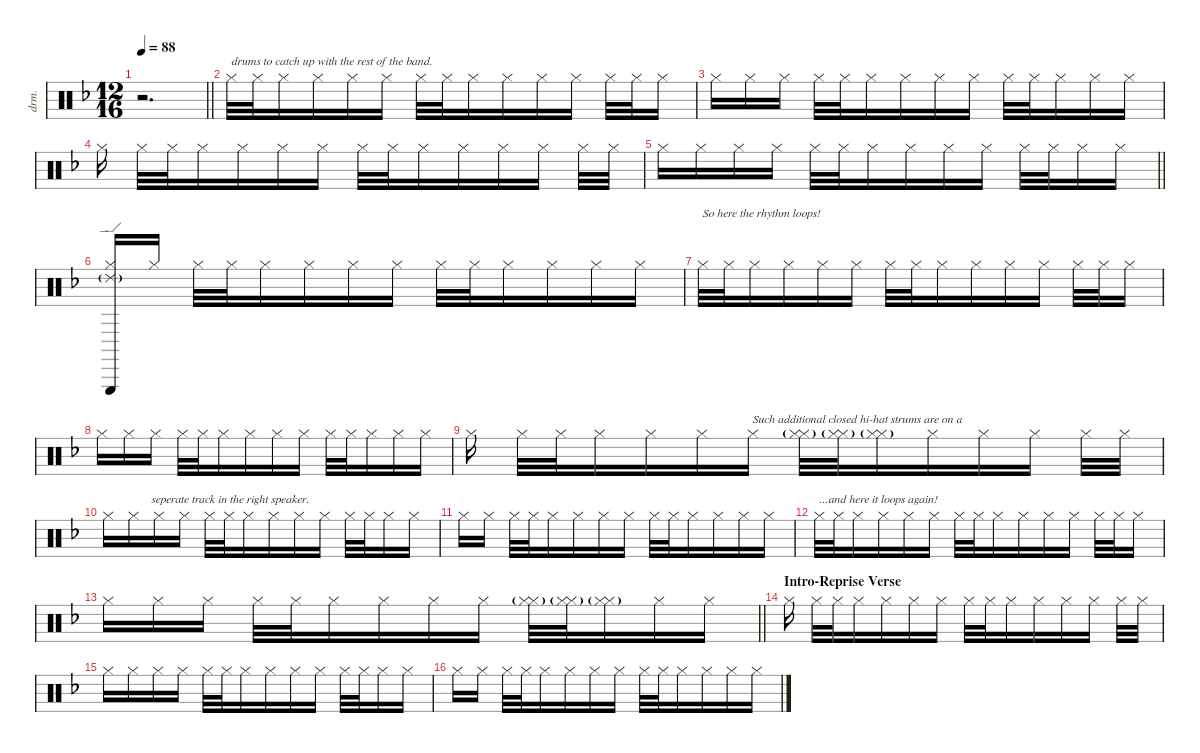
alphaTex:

\defaultSystemsLayout 4
\hideDynamics
\bracketExtendMode nobrackets
\otherSystemsTrackNameOrientation horizontal
\track ("Drums" "drm.") {instrument percussion}
\staff {score}
\articulation defaults
\ts (12 16)
\tempo 88
\clef neutral
\barLineRight lightlight
\ks dminor
r.2{d dy f beam Down} |
"Hi-Hat (closed)"{acc forcenatural}.32{txt "drums to catch up with the rest of the band." dy mf beam Down} "Hi-Hat (closed)"{acc forcenatural}.32{beam Down} "Hi-Hat (closed)"{acc forcenatural}.16{beam Down} "Hi-Hat (closed)"{acc forcenatural}.16{beam Down beam merge} "Hi-Hat (closed)"{acc forcenatural}.16{beam Down} "Hi-Hat (closed)"{acc forcenatural}.16{beam Down beam split} "Hi-Hat (closed)"{acc forcenatural}.32{beam Down} "Hi-Hat (closed)"{acc forcenatural}.32{beam Down beam merge} "Hi-Hat (closed)"{acc forcenatural}.16{beam Down} "Hi-Hat (closed)"{acc forcenatural}.16{beam Down} "Hi-Hat (closed)"{acc forcenatural}.16{beam Down beam merge} "Hi-Hat (closed)"{acc forcenatural}.16{beam Down beam split} "Hi-Hat (closed)"{acc forcenatural}.32{beam Down} "Hi-Hat (closed)"{acc forcenatural}.32{beam Down} "Hi-Hat (closed)"{acc forcenatural}.16{beam Down} |
"Hi-Hat (closed)"{acc forcenatural}.16{beam Down} "Hi-Hat (closed)"{acc forcenatural}.16{beam Down} "Hi-Hat (closed)"{acc forcenatural}.16{beam Down beam split} "Hi-Hat (closed)"{acc forcenatural}.32{beam Down} "Hi-Hat (closed)"{acc forcenatural}.32{beam Down beam merge} "Hi-Hat (closed)"{acc forcenatural}.16{beam Down} "Hi-Hat (closed)"{acc forcenatural}.16{beam Down beam merge} "Hi-Hat (closed)"{acc forcenatural}.16{beam Down beam merge} "Hi-Hat (closed)"{acc forcenatural}.16{beam Down beam split} "Hi-Hat (closed)"{acc forcenatural}.32{beam Down} "Hi-Hat (closed)"{acc forcenatural}.32{beam Down beam merge} "Hi-Hat (closed)"{acc forcenatural}.16{beam Down} "Hi-Hat (closed)"{acc forcenatural}.16{beam Down} "Hi-Hat (closed)"{acc forcenatural}.16{beam Down} |
"Hi-Hat (closed)"{acc forcenatural}.16{beam Down beam split} "Hi-Hat (closed)"{acc forcenatural}.32{beam Down} "Hi-Hat (closed)"{acc forcenatural}.32{beam Down beam merge} "Hi-Hat (closed)"{acc forcenatural}.16{beam Down beam merge} "Hi-Hat (closed)"{acc forcenatural}.16{beam Down} "Hi-Hat (closed)"{acc forcenatural}.16{beam Down beam merge} "Hi-Hat (closed)"{acc forcenatural}.16{beam Down beam split} "Hi-Hat (closed)"{acc forcenatural}.32{beam Down} "Hi-Hat (closed)"{acc forcenatural}.32{beam Down beam merge} "Hi-Hat (closed)"{acc forcenatural}.16{beam Down} "Hi-Hat (closed)"{acc forcenatural}.16{beam Down beam merge} "Hi-Hat (closed)"{acc forcenatural}.16{beam Down beam merge} "Hi-Hat (closed)"{acc forcenatural}.16{beam Down beam split} "Hi-Hat (closed)"{acc forcenatural}.32{beam Down} "Hi-Hat (closed)"{acc forcenatural}.32{beam Down} |
\barLineRight lightlight "Hi-Hat (closed)"{acc forcenatural}.16{beam Down} "Hi-Hat (closed)"{acc forcenatural}.16{beam Down} "Hi-Hat (closed)"{acc forcenatural}.16{beam Down beam merge} "Hi-Hat (closed)"{acc forcenatural}.16{beam Down beam split} "Hi-Hat (closed)"{acc forcenatural}.32{beam Down} "Hi-Hat (closed)"{acc forcenatural}.32{beam Down beam merge} "Hi-Hat (closed)"{acc forcenatural}.16{beam Down beam merge} "Hi-Hat (closed)"{acc forcenatural}.16{beam Down beam merge} "Hi-Hat (closed)"{acc forcenatural}.16{beam Down beam merge} "Hi-Hat (closed)"{acc forcenatural}.16{beam Down beam split} "Hi-Hat (closed)"{acc forcenatural}.32{beam Down} "Hi-Hat (closed)"{acc forcenatural}.32{beam Down beam merge} "Hi-Hat (closed)"{acc forcenatural}.16{beam Down} "Hi-Hat (closed)"{acc forcenatural}.16{beam Down}
|
("Hi-Hat (closed)"{acc forcenatural} "Triangle (hit)"{acc forcenatural} "Ride (edge) 2"{g acc forcenatural}).16{beam Up beam merge} "Hi-Hat (closed)"{acc forcenatural}.16{beam Up beam split} "Hi-Hat (closed)"{acc forcenatural}.32{beam Down} "Hi-Hat (closed)"{acc forcenatural}.32{beam Down beam merge} "Hi-Hat (closed)"{acc forcenatural}.16{beam Down beam merge} "Hi-Hat (closed)"{acc forcenatural}.16{beam Down beam merge} "Hi-Hat (closed)"{acc forcenatural}.16{beam Down beam merge} "Hi-Hat (closed)"{acc forcenatural}.16{beam Down beam split} "Hi-Hat (closed)"{acc forcenatural}.32{beam Down} "Hi-Hat (closed)"{acc forcenatural}.32{beam Down beam merge} "Hi-Hat (closed)"{acc forcenatural}.16{beam Down beam merge} "Hi-Hat (closed)"{acc forcenatural}.16{beam Down beam merge} "Hi-Hat (closed)"{acc forcenatural}.16{beam Down beam merge} "Hi-Hat (closed)"{acc forcenatural}.16{beam Down} |
"Hi-Hat (closed)"{acc forcenatural}.32{txt "So here the rhythm loops!" beam Down} "Hi-Hat (closed)"{acc forcenatural}.32{beam Down} "Hi-Hat (closed)"{acc forcenatural}.16{beam Down} "Hi-Hat (closed)"{acc forcenatural}.16{beam Down beam merge} "Hi-Hat (closed)"{acc forcenatural}.16{beam Down} "Hi-Hat (closed)"{acc forcenatural}.16{beam Down beam split} "Hi-Hat (closed)"{acc forcenatural}.32{beam Down} "Hi-Hat (closed)"{acc forcenatural}.32{beam Down beam merge} "Hi-Hat (closed)"{acc forcenatural}.16{beam Down} "Hi-Hat (closed)"{acc forcenatural}.16{beam Down} "Hi-Hat (closed)"{acc forcenatural}.16{beam Down beam merge} "Hi-Hat (closed)"{acc forcenatural}.16{beam Down beam split} "Hi-Hat (closed)"{acc forcenatural}.32{beam Down} "Hi-Hat (closed)"{acc forcenatural}.32{beam Down} "Hi-Hat (closed)"{acc forcenatural}.16{beam Down} |
"Hi-Hat (closed)"{acc forcenatural}.16{beam Down} "Hi-Hat (closed)"{acc forcenatural}.16{beam Down} "Hi-Hat (closed)"{acc forcenatural}.16{beam Down beam split} "Hi-Hat (closed)"{acc forcenatural}.32{beam Down} "Hi-Hat (closed)"{acc forcenatural}.32{beam Down beam merge} "Hi-Hat (closed)"{acc forcenatural}.16{beam Down} "Hi-Hat (closed)"{acc forcenatural}.16{beam Down beam merge} "Hi-Hat (closed)"{acc forcenatural}.16{beam Down beam merge} "Hi-Hat (closed)"{acc forcenatural}.16{beam Down beam split} "Hi-Hat (closed)"{acc forcenatural}.32{beam Down} "Hi-Hat (closed)"{acc forcenatural}.32{beam Down beam merge} "Hi-Hat (closed)"{acc forcenatural}.16{beam Down} "Hi-Hat (closed)"{acc forcenatural}.16{beam Down} "Hi-Hat (closed)"{acc forcenatural}.16{beam Down} |
"Hi-Hat (closed)"{acc forcenatural}.16{beam Down beam split} "Hi-Hat (closed)"{acc forcenatural}.32{beam Down} "Hi-Hat (closed)"{acc forcenatural}.32{beam Down beam merge} "Hi-Hat (closed)"{acc forcenatural}.16{beam Down beam merge} "Hi-Hat (closed)"{acc forcenatural}.16{beam Down} "Hi-Hat (closed)"{acc forcenatural}.16{beam Down beam merge} "Hi-Hat (closed)"{acc forcenatural}.16{txt "Such additional closed hi-hat strums are on a" beam Down beam split} ("Hi-Hat (closed)"{acc forcenatural} "Hi-Hat (closed)"{g acc forcenatural}).32{beam Down} ("Hi-Hat (closed)"{acc forcenatural} "Hi-Hat (closed)"{g acc forcenatural}).32{beam Down beam merge} ("Hi-Hat (closed)"{acc forcenatural} "Hi-Hat (closed)"{g acc forcenatural}).16{beam Down} "Hi-Hat (closed)"{acc forcenatural}.16{beam Down beam merge} "Hi-Hat (closed)"{acc forcenatural}.16{beam Down beam merge} "Hi-Hat (closed)"{acc forcenatural}.16{beam Down beam split} "Hi-Hat (closed)"{acc forcenatural}.32{beam Down} "Hi-Hat (closed)"{acc forcenatural}.32{beam Down} |
"Hi-Hat (closed)"{acc forcenatural}.16{beam Down} "Hi-Hat (closed)"{acc forcenatural}.16{txt "      seperate track in the right speaker." beam Down} "Hi-Hat (closed)"{acc forcenatural}.16{beam Down beam merge} "Hi-Hat (closed)"{acc forcenatural}.16{beam Down beam split} "Hi-Hat (closed)"{acc forcenatural}.32{beam Down} "Hi-Hat (closed)"{acc forcenatural}.32{beam Down beam merge} "Hi-Hat (closed)"{acc forcenatural}.16{beam Down beam merge} "Hi-Hat (closed)"{acc forcenatural}.16{beam Down beam merge} "Hi-Hat (closed)"{acc forcenatural}.16{beam Down beam merge} "Hi-Hat (closed)"{acc forcenatural}.16{beam Down beam split} "Hi-Hat (closed)"{acc forcenatural}.32{beam Down} "Hi-Hat (closed)"{acc forcenatural}.32{beam Down beam merge} "Hi-Hat (closed)"{acc forcenatural}.16{beam Down} "Hi-Hat (closed)"{acc forcenatural}.16{beam Down} |
"Hi-Hat (closed)"{acc forcenatural}.16{beam Down beam merge} "Hi-Hat (closed)"{acc forcenatural}.16{beam Down beam split} "Hi-Hat (closed)"{acc forcenatural}.32{beam Down} "Hi-Hat (closed)"{acc forcenatural}.32{beam Down beam merge} "Hi-Hat (closed)"{acc forcenatural}.16{beam Down beam merge} "Hi-Hat (closed)"{acc forcenatural}.16{beam Down beam merge} "Hi-Hat (closed)"{acc forcenatural}.16{beam Down beam merge} "Hi-Hat (closed)"{acc forcenatural}.16{beam Down beam split} "Hi-Hat (closed)"{acc forcenatural}.32{beam Down} "Hi-Hat (closed)"{acc forcenatural}.32{beam Down beam merge} "Hi-Hat (closed)"{acc forcenatural}.16{beam Down beam merge} "Hi-Hat (closed)"{acc forcenatural}.16{beam Down beam merge} "Hi-Hat (closed)"{acc forcenatural}.16{beam Down beam merge} "Hi-Hat (closed)"{acc forcenatural}.16{beam Down} |
"Hi-Hat (closed)"{acc forcenatural}.32{txt "...and here it loops again!" beam Down} "Hi-Hat (closed)"{acc forcenatural}.32{beam Down} "Hi-Hat (closed)"{acc forcenatural}.16{beam Down} "Hi-Hat (closed)"{acc forcenatural}.16{beam Down beam merge} "Hi-Hat (closed)"{acc forcenatural}.16{beam Down} "Hi-Hat (closed)"{acc forcenatural}.16{beam Down beam split} "Hi-Hat (closed)"{acc forcenatural}.32{beam Down} "Hi-Hat (closed)"{acc forcenatural}.32{beam Down beam merge} "Hi-Hat (closed)"{acc forcenatural}.16{beam Down} "Hi-Hat (closed)"{acc forcenatural}.16{beam Down} "Hi-Hat (closed)"{acc forcenatural}.16{beam Down beam merge} "Hi-Hat (closed)"{acc forcenatural}.16{beam Down beam split} "Hi-Hat (closed)"{acc forcenatural}.32{beam Down} "Hi-Hat (closed)"{acc forcenatural}.32{beam Down} "Hi-Hat (closed)"{acc forcenatural}.16{beam Down} |
\barLineRight lightlight "Hi-Hat (closed)"{acc forcenatural}.16{beam Down} "Hi-Hat (closed)"{acc forcenatural}.16{beam Down} "Hi-Hat (closed)"{acc forcenatural}.16{beam Down beam split} "Hi-Hat (closed)"{acc forcenatural}.32{beam Down} "Hi-Hat (closed)"{acc forcenatural}.32{beam Down beam merge} "Hi-Hat (closed)"{acc forcenatural}.16{beam Down} "Hi-Hat (closed)"{acc forcenatural}.16{beam Down beam merge} "Hi-Hat (closed)"{acc forcenatural}.16{beam Down beam merge} "Hi-Hat (closed)"{acc forcenatural}.16{beam Down beam split}
("Hi-Hat (closed)"{acc forcenatural} "Hi-Hat (closed)"{g acc forcenatural}).32{beam Down} ("Hi-Hat (closed)"{acc forcenatural} "Hi-Hat (closed)"{g acc forcenatural}).32{beam Down beam merge} ("Hi-Hat (closed)"{acc forcenatural} "Hi-Hat (closed)"{g acc forcenatural}).16{beam Down} "Hi-Hat (closed)"{acc forcenatural}.16{beam Down} "Hi-Hat (closed)"{acc forcenatural}.16{beam Down} |
\section ("" "Intro-Reprise Verse")
"Hi-Hat (closed)"{acc forcenatural}.16{beam Down beam split} "Hi-Hat (closed)"{acc forcenatural}.32{beam Down} "Hi-Hat (closed)"{acc forcenatural}.32{beam Down beam merge} "Hi-Hat (closed)"{acc forcenatural}.16{beam Down beam merge} "Hi-Hat (closed)"{acc forcenatural}.16{beam Down} "Hi-Hat (closed)"{acc forcenatural}.16{beam Down beam merge} "Hi-Hat (closed)"{acc forcenatural}.16{beam Down beam split} "Hi-Hat (closed)"{acc forcenatural}.32{beam Down} "Hi-Hat (closed)"{acc forcenatural}.32{beam Down beam merge} "Hi-Hat (closed)"{acc forcenatural}.16{beam Down} "Hi-Hat (closed)"{acc forcenatural}.16{beam Down beam merge} "Hi-Hat (closed)"{acc forcenatural}.16{beam Down beam merge} "Hi-Hat (closed)"{acc forcenatural}.16{beam Down beam split} "Hi-Hat (closed)"{acc forcenatural}.32{beam Down} "Hi-Hat (closed)"{acc forcenatural}.32{beam Down} |
"Hi-Hat (closed)"{acc forcenatural}.16{beam Down} "Hi-Hat (closed)"{acc forcenatural}.16{beam Down} "Hi-Hat (closed)"{acc forcenatural}.16{beam Down beam merge} "Hi-Hat (closed)"{acc forcenatural}.16{beam Down beam split} "Hi-Hat (closed)"{acc forcenatural}.32{beam Down} "Hi-Hat (closed)"{acc forcenatural}.32{beam Down beam merge} "Hi-Hat (closed)"{acc forcenatural}.16{beam Down beam merge} "Hi-Hat (closed)"{acc forcenatural}.16{beam Down beam merge} "Hi-Hat (closed)"{acc forcenatural}.16{beam Down beam merge} "Hi-Hat (closed)"{acc forcenatural}.16{beam Down beam split} "Hi-Hat (closed)"{acc forcenatural}.32{beam Down} "Hi-Hat (closed)"{acc forcenatural}.32{beam Down beam merge} "Hi-Hat (closed)"{acc forcenatural}.16{beam Down} "Hi-Hat (closed)"{acc forcenatural}.16{beam Down} |
"Hi-Hat (closed)"{acc forcenatural}.16{beam Down beam merge} "Hi-Hat (closed)"{acc forcenatural}.16{beam Down beam split} "Hi-Hat (closed)"{acc forcenatural}.32{beam Down} "Hi-Hat (closed)"{acc forcenatural}.32{beam Down beam merge} "Hi-Hat (closed)"{acc forcenatural}.16{beam Down beam merge} "Hi-Hat (closed)"{acc forcenatural}.16{beam Down beam merge} "Hi-Hat (closed)"{acc forcenatural}.16{beam Down beam merge} "Hi-Hat (closed)"{acc forcenatural}.16{beam Down beam split} "Hi-Hat (closed)"{acc forcenatural}.32{beam Down} "Hi-Hat (closed)"{acc forcenatural}.32{beam Down beam merge} "Hi-Hat (closed)"{acc forcenatural}.16{beam Down beam merge} "Hi-Hat (closed)"{acc forcenatural}.16{beam Down beam merge} "Hi-Hat (closed)"{acc forcenatural}.16{beam Down beam merge} "Hi-Hat (closed)"{acc forcenatural}.16{beam Down}
